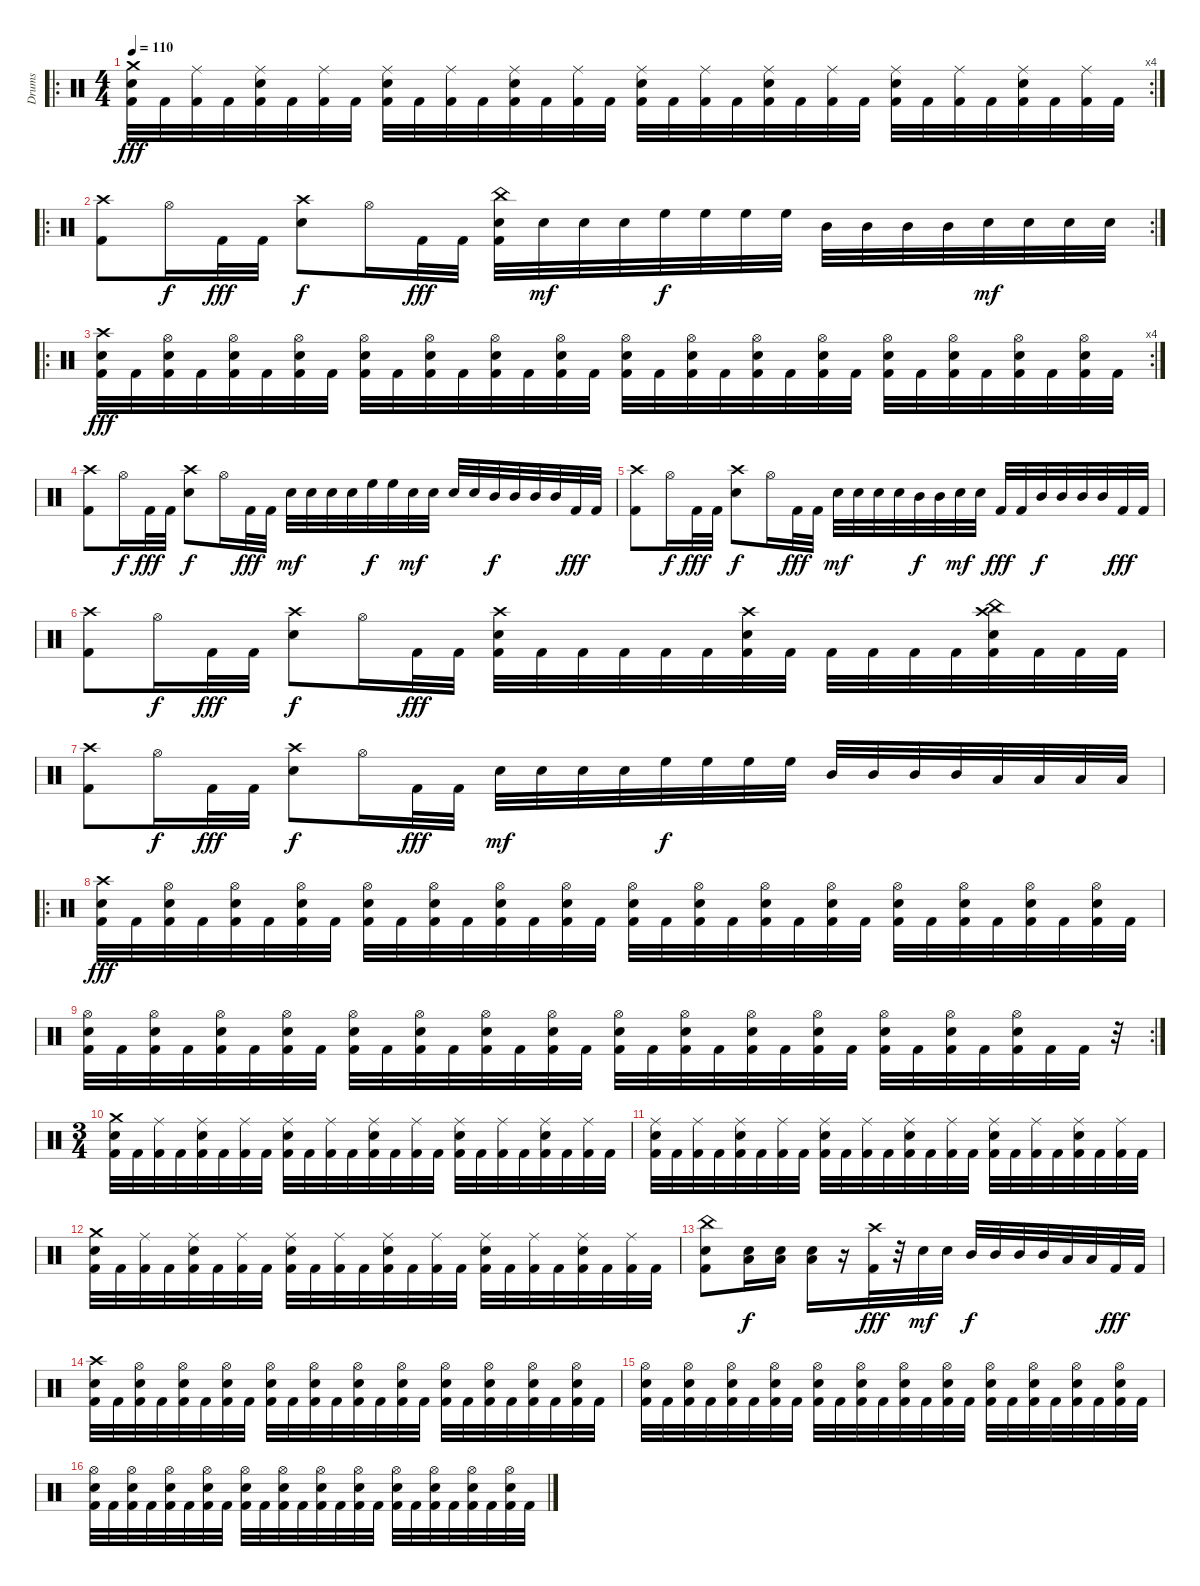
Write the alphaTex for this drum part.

\track ("Drums" "Drums") {instrument percussion}
\staff {score}
\articulation defaults
\ro
\rc 4
\ts (4 4)
\tempo 110
\clef neutral
\ks c
("Crash medium (hit)" "Electric Snare (hit)" "Kick (hit) 2").32{dy fff} "Kick (hit) 2".32 ("Ride (middle)" "Kick (hit) 2").32 "Kick (hit) 2".32 ("Ride (middle)" "Electric Snare (hit)" "Kick (hit) 2").32 "Kick (hit) 2".32 ("Ride (middle)" "Kick (hit) 2").32 "Kick (hit) 2".32 ("Ride (middle)" "Electric Snare (hit)" "Kick (hit) 2").32 "Kick (hit) 2".32 ("Ride (middle)" "Kick (hit) 2").32 "Kick (hit) 2".32 ("Ride (middle)" "Electric Snare (hit)" "Kick (hit) 2").32 "Kick (hit) 2".32 ("Ride (middle)" "Kick (hit) 2").32 "Kick (hit) 2".32 ("Ride (middle)" "Electric Snare (hit)" "Kick (hit) 2").32 "Kick (hit) 2".32 ("Ride (middle)" "Kick (hit) 2").32 "Kick (hit) 2".32 ("Ride (middle)" "Electric Snare (hit)" "Kick (hit) 2").32 "Kick (hit) 2".32 ("Ride (middle)" "Kick (hit) 2").32 "Kick (hit) 2".32 ("Ride (middle)" "Electric Snare (hit)" "Kick (hit) 2").32 "Kick (hit) 2".32 ("Ride (middle)" "Kick (hit) 2").32 "Kick (hit) 2".32 ("Ride (middle)" "Electric Snare (hit)" "Kick (hit) 2").32 "Kick (hit) 2".32 ("Ride (middle)" "Kick (hit) 2").32 "Kick (hit) 2".32 |
\ro
\rc 2
("Crash high (hit)" "Kick (hit) 2").8 "Hi-Hat (open)".16{dy f} "Kick (hit) 2".32{dy fff} "Kick (hit) 2".32 ("Crash high (hit)" "Electric Snare (hit)").8{dy f} "Hi-Hat (open)".16 "Kick (hit) 2".32{dy fff} "Kick (hit) 2".32 ("China (hit)" "Electric Snare (hit)" "Kick (hit) 2").32 "Electric Snare (hit)".32{dy mf} "Electric Snare (hit)".32 "Electric Snare (hit)".32 "High Floor Tom (hit)".32{dy f} "High Floor Tom (hit)".32 "High Floor Tom (hit)".32 "High Floor Tom (hit)".32 "Mid Tom (hit)".32 "Mid Tom (hit)".32 "Mid Tom (hit)".32 "Mid Tom (hit)".32 "Electric Snare (hit)".32{dy mf} "Electric Snare (hit)".32 "Electric Snare (hit)".32 "Electric Snare (hit)".32 |
\ro
\rc 4
("Crash high (hit)" "Electric Snare (hit)" "Kick (hit) 2").32{dy fff} "Kick (hit) 2".32 ("Hi-Hat (open)" "Electric Snare (hit)" "Kick (hit) 2").32 "Kick (hit) 2".32 ("Hi-Hat (open)" "Electric Snare (hit)" "Kick (hit) 2").32 "Kick (hit) 2".32 ("Hi-Hat (open)" "Electric Snare (hit)" "Kick (hit) 2").32 "Kick (hit) 2".32 ("Hi-Hat (open)" "Electric Snare (hit)" "Kick (hit) 2").32 "Kick (hit) 2".32 ("Hi-Hat (open)" "Electric Snare (hit)" "Kick (hit) 2").32 "Kick (hit) 2".32 ("Hi-Hat (open)" "Electric Snare (hit)" "Kick (hit) 2").32 "Kick (hit) 2".32 ("Hi-Hat (open)" "Electric Snare (hit)" "Kick (hit) 2").32 "Kick (hit) 2".32 ("Hi-Hat (open)" "Electric Snare (hit)" "Kick (hit) 2").32 "Kick (hit) 2".32 ("Hi-Hat (open)" "Electric Snare (hit)" "Kick (hit) 2").32 "Kick (hit) 2".32 ("Hi-Hat (open)" "Electric Snare (hit)" "Kick (hit) 2").32 "Kick (hit) 2".32 ("Hi-Hat (open)" "Electric Snare (hit)" "Kick (hit) 2").32 "Kick (hit) 2".32 ("Hi-Hat (open)" "Electric Snare (hit)" "Kick (hit) 2").32 "Kick (hit) 2".32 ("Hi-Hat (open)" "Electric Snare (hit)" "Kick (hit) 2").32 "Kick (hit) 2".32 ("Hi-Hat (open)" "Electric Snare (hit)" "Kick (hit) 2").32 "Kick (hit) 2".32 ("Hi-Hat (open)" "Electric Snare (hit)" "Kick (hit) 2").32 "Kick (hit) 2".32 |
("Crash high (hit)" "Kick (hit) 2").8 "Hi-Hat (open)".16{dy f} "Kick (hit) 2".32{dy fff} "Kick (hit) 2".32 ("Crash high (hit)" "Electric Snare (hit)").8{dy f} "Hi-Hat (open)".16 "Kick (hit) 2".32{dy fff} "Kick (hit) 2".32 "Electric Snare (hit)".32{dy mf} "Electric Snare (hit)".32 "Electric Snare (hit)".32 "Electric Snare (hit)".32 "High Floor Tom (hit)".32{dy f} "High Floor Tom (hit)".32 "Electric Snare (hit)".32{dy mf} "Electric Snare (hit)".32 "Electric Snare (hit)".32 "Electric Snare (hit)".32 "Mid Tom (hit)".32{dy f} "Mid Tom (hit)".32 "Mid Tom (hit)".32 "Mid Tom (hit)".32 "Kick (hit) 2".32{dy fff} "Kick (hit) 2".32 |
("Crash high (hit)" "Kick (hit) 2").8 "Hi-Hat (open)".16{dy f} "Kick (hit) 2".32{dy fff} "Kick (hit) 2".32 ("Crash high (hit)" "Electric Snare (hit)").8{dy f} "Hi-Hat (open)".16 "Kick (hit) 2".32{dy fff} "Kick (hit) 2".32 "Electric Snare (hit)".32{dy mf} "Electric Snare (hit)".32 "Electric Snare (hit)".32 "Electric Snare (hit)".32 "Mid Tom (hit)".32{dy f} "Mid Tom (hit)".32 "Electric Snare (hit)".32{dy mf} "Electric Snare (hit)".32 "Kick (hit) 2".32{dy fff} "Kick (hit) 2".32 "Mid Tom (hit)".32{dy f} "Mid Tom (hit)".32 "Mid Tom (hit)".32 "Mid Tom (hit)".32 "Kick (hit) 2".32{dy fff} "Kick (hit) 2".32 |
("Crash high (hit)" "Kick (hit) 2").8 "Hi-Hat (open)".16{dy f} "Kick (hit) 2".32{dy fff} "Kick (hit) 2".32 ("Crash high (hit)" "Electric Snare (hit)").8{dy f} "Hi-Hat (open)".16 "Kick (hit) 2".32{dy fff} "Kick (hit) 2".32 ("Crash high (hit)" "Electric Snare (hit)" "Kick (hit) 2").32 "Kick (hit) 2".32 "Kick (hit) 2".32 "Kick (hit) 2".32 "Kick (hit) 2".32 "Kick (hit) 2".32 ("Crash high (hit)" "Electric Snare (hit)" "Kick (hit) 2").32 "Kick (hit) 2".32 "Kick (hit) 2".32 "Kick (hit) 2".32 "Kick (hit) 2".32 "Kick (hit) 2".32 ("Crash high (hit)" "China (hit)" "Electric Snare (hit)" "Kick (hit) 2").32 "Kick (hit) 2".32 "Kick (hit) 2".32 "Kick (hit) 2".32 |
("Crash high (hit)" "Kick (hit) 2").8 "Hi-Hat (open)".16{dy f} "Kick (hit) 2".32{dy fff} "Kick (hit) 2".32 ("Crash high (hit)" "Electric Snare (hit)").8{dy f} "Hi-Hat (open)".16 "Kick (hit) 2".32{dy fff} "Kick (hit) 2".32 "Electric Snare (hit)".32{dy mf} "Electric Snare (hit)".32 "Electric Snare (hit)".32 "Electric Snare (hit)".32 "High Floor Tom (hit)".32{dy f} "High Floor Tom (hit)".32 "High Floor Tom (hit)".32 "High Floor Tom (hit)".32 "Mid Tom (hit)".32 "Mid Tom (hit)".32 "Mid Tom (hit)".32 "Mid Tom (hit)".32 "Low Tom (hit)".32 "Low Tom (hit)".32 "Low Tom (hit)".32 "Low Tom (hit)".32 |
\ro
("Crash high (hit)" "Electric Snare (hit)" "Kick (hit) 2").32{dy fff} "Kick (hit) 2".32 ("Hi-Hat (open)" "Electric Snare (hit)" "Kick (hit) 2").32 "Kick (hit) 2".32 ("Hi-Hat (open)" "Electric Snare (hit)" "Kick (hit) 2").32 "Kick (hit) 2".32 ("Hi-Hat (open)" "Electric Snare (hit)" "Kick (hit) 2").32 "Kick (hit) 2".32 ("Hi-Hat (open)" "Electric Snare (hit)" "Kick (hit) 2").32 "Kick (hit) 2".32 ("Hi-Hat (open)" "Electric Snare (hit)" "Kick (hit) 2").32 "Kick (hit) 2".32 ("Hi-Hat (open)" "Electric Snare (hit)" "Kick (hit) 2").32 "Kick (hit) 2".32 ("Hi-Hat (open)" "Electric Snare (hit)" "Kick (hit) 2").32 "Kick (hit) 2".32 ("Hi-Hat (open)" "Electric Snare (hit)" "Kick (hit) 2").32 "Kick (hit) 2".32 ("Hi-Hat (open)" "Electric Snare (hit)" "Kick (hit) 2").32 "Kick (hit) 2".32 ("Hi-Hat (open)" "Electric Snare (hit)" "Kick (hit) 2").32 "Kick (hit) 2".32 ("Hi-Hat (open)" "Electric Snare (hit)" "Kick (hit) 2").32 "Kick (hit) 2".32 ("Hi-Hat (open)" "Electric Snare (hit)" "Kick (hit) 2").32 "Kick (hit) 2".32 ("Hi-Hat (open)" "Electric Snare (hit)" "Kick (hit) 2").32 "Kick (hit) 2".32 ("Hi-Hat (open)" "Electric Snare (hit)" "Kick (hit) 2").32 "Kick (hit) 2".32 ("Hi-Hat (open)" "Electric Snare (hit)" "Kick (hit) 2").32 "Kick (hit) 2".32 |
\rc 2
("Hi-Hat (open)" "Electric Snare (hit)" "Kick (hit) 2").32 "Kick (hit) 2".32 ("Hi-Hat (open)" "Electric Snare (hit)" "Kick (hit) 2").32 "Kick (hit) 2".32 ("Hi-Hat (open)" "Electric Snare (hit)" "Kick (hit) 2").32 "Kick (hit) 2".32 ("Hi-Hat (open)" "Electric Snare (hit)" "Kick (hit) 2").32 "Kick (hit) 2".32 ("Hi-Hat (open)" "Electric Snare (hit)" "Kick (hit) 2").32 "Kick (hit) 2".32 ("Hi-Hat (open)" "Electric Snare (hit)" "Kick (hit) 2").32 "Kick (hit) 2".32 ("Hi-Hat (open)" "Electric Snare (hit)" "Kick (hit) 2").32 "Kick (hit) 2".32 ("Hi-Hat (open)" "Electric Snare (hit)" "Kick (hit) 2").32 "Kick (hit) 2".32 ("Hi-Hat (open)" "Electric Snare (hit)" "Kick (hit) 2").32 "Kick (hit) 2".32 ("Hi-Hat (open)" "Electric Snare (hit)" "Kick (hit) 2").32 "Kick (hit) 2".32 ("Hi-Hat (open)" "Electric Snare (hit)" "Kick (hit) 2").32 "Kick (hit) 2".32 ("Hi-Hat (open)" "Electric Snare (hit)" "Kick (hit) 2").32 "Kick (hit) 2".32 ("Hi-Hat (open)" "Electric Snare (hit)" "Kick (hit) 2").32 "Kick (hit) 2".32 ("Hi-Hat (open)" "Electric Snare (hit)" "Kick (hit) 2").32 "Kick (hit) 2".32 ("Hi-Hat (open)" "Electric Snare (hit)" "Kick (hit) 2").32 "Kick (hit) 2".32 "Kick (hit) 2".32 r.32 |
\ts (3 4)
("Crash medium (hit)" "Electric Snare (hit)" "Kick (hit) 2").32 "Kick (hit) 2".32 ("Ride (middle)" "Kick (hit) 2").32 "Kick (hit) 2".32 ("Ride (middle)" "Electric Snare (hit)" "Kick (hit) 2").32 "Kick (hit) 2".32 ("Ride (middle)" "Kick (hit) 2").32 "Kick (hit) 2".32 ("Ride (middle)" "Electric Snare (hit)" "Kick (hit) 2").32 "Kick (hit) 2".32 ("Ride (middle)" "Kick (hit) 2").32 "Kick (hit) 2".32 ("Ride (middle)" "Electric Snare (hit)" "Kick (hit) 2").32 "Kick (hit) 2".32 ("Ride (middle)" "Kick (hit) 2").32 "Kick (hit) 2".32 ("Ride (middle)" "Electric Snare (hit)" "Kick (hit) 2").32 "Kick (hit) 2".32 ("Ride (middle)" "Kick (hit) 2").32 "Kick (hit) 2".32 ("Ride (middle)" "Electric Snare (hit)" "Kick (hit) 2").32 "Kick (hit) 2".32 ("Ride (middle)" "Kick (hit) 2").32 "Kick (hit) 2".32 |
("Ride (middle)" "Electric Snare (hit)" "Kick (hit) 2").32 "Kick (hit) 2".32 ("Ride (middle)" "Kick (hit) 2").32 "Kick (hit) 2".32 ("Ride (middle)" "Electric Snare (hit)" "Kick (hit) 2").32 "Kick (hit) 2".32 ("Ride (middle)" "Kick (hit) 2").32 "Kick (hit) 2".32 ("Ride (middle)" "Electric Snare (hit)" "Kick (hit) 2").32 "Kick (hit) 2".32 ("Ride (middle)" "Kick (hit) 2").32 "Kick (hit) 2".32 ("Ride (middle)" "Electric Snare (hit)" "Kick (hit) 2").32 "Kick (hit) 2".32 ("Ride (middle)" "Kick (hit) 2").32 "Kick (hit) 2".32 ("Ride (middle)" "Electric Snare (hit)" "Kick (hit) 2").32 "Kick (hit) 2".32 ("Ride (middle)" "Kick (hit) 2").32 "Kick (hit) 2".32 ("Ride (middle)" "Electric Snare (hit)" "Kick (hit) 2").32 "Kick (hit) 2".32 ("Ride (middle)" "Kick (hit) 2").32 "Kick (hit) 2".32 |
("Crash medium (hit)" "Electric Snare (hit)" "Kick (hit) 2").32 "Kick (hit) 2".32 ("Ride (middle)" "Kick (hit) 2").32 "Kick (hit) 2".32 ("Ride (middle)" "Electric Snare (hit)" "Kick (hit) 2").32 "Kick (hit) 2".32 ("Ride (middle)" "Kick (hit) 2").32 "Kick (hit) 2".32 ("Ride (middle)" "Electric Snare (hit)" "Kick (hit) 2").32 "Kick (hit) 2".32 ("Ride (middle)" "Kick (hit) 2").32 "Kick (hit) 2".32 ("Ride (middle)" "Electric Snare (hit)" "Kick (hit) 2").32 "Kick (hit) 2".32 ("Ride (middle)" "Kick (hit) 2").32 "Kick (hit) 2".32 ("Ride (middle)" "Electric Snare (hit)" "Kick (hit) 2").32 "Kick (hit) 2".32 ("Ride (middle)" "Kick (hit) 2").32 "Kick (hit) 2".32 ("Ride (middle)" "Electric Snare (hit)" "Kick (hit) 2").32 "Kick (hit) 2".32 ("Ride (middle)" "Kick (hit) 2").32 "Kick (hit) 2".32 |
("China (hit)" "Electric Snare (hit)" "Kick (hit) 2").8 ("Electric Snare (hit)" "Low Tom (hit)").16{dy f} ("Electric Snare (hit)" "Low Tom (hit)").16 ("Electric Snare (hit)" "Low Tom (hit)").16 r.16 ("Crash high (hit)" "Kick (hit) 2").32{dy fff} r.32 "Electric Snare (hit)".32{dy mf} "Electric Snare (hit)".32 "Mid Tom (hit)".32{dy f} "Mid Tom (hit)".32 "Mid Tom (hit)".32 "Mid Tom (hit)".32 "Low Tom (hit)".32 "Low Tom (hit)".32 "Kick (hit) 2".32{dy fff} "Kick (hit) 2".32 |
("Crash high (hit)" "Electric Snare (hit)" "Kick (hit) 2").32 "Kick (hit) 2".32 ("Hi-Hat (open)" "Electric Snare (hit)" "Kick (hit) 2").32 "Kick (hit) 2".32 ("Hi-Hat (open)" "Electric Snare (hit)" "Kick (hit) 2").32 "Kick (hit) 2".32 ("Hi-Hat (open)" "Electric Snare (hit)" "Kick (hit) 2").32 "Kick (hit) 2".32 ("Hi-Hat (open)" "Electric Snare (hit)" "Kick (hit) 2").32 "Kick (hit) 2".32 ("Hi-Hat (open)" "Electric Snare (hit)" "Kick (hit) 2").32 "Kick (hit) 2".32 ("Hi-Hat (open)" "Electric Snare (hit)" "Kick (hit) 2").32 "Kick (hit) 2".32 ("Hi-Hat (open)" "Electric Snare (hit)" "Kick (hit) 2").32 "Kick (hit) 2".32 ("Hi-Hat (open)" "Electric Snare (hit)" "Kick (hit) 2").32 "Kick (hit) 2".32 ("Hi-Hat (open)" "Electric Snare (hit)" "Kick (hit) 2").32 "Kick (hit) 2".32 ("Hi-Hat (open)" "Electric Snare (hit)" "Kick (hit) 2").32 "Kick (hit) 2".32 ("Hi-Hat (open)" "Electric Snare (hit)" "Kick (hit) 2").32 "Kick (hit) 2".32 |
("Hi-Hat (open)" "Electric Snare (hit)" "Kick (hit) 2").32 "Kick (hit) 2".32 ("Hi-Hat (open)" "Electric Snare (hit)" "Kick (hit) 2").32 "Kick (hit) 2".32 ("Hi-Hat (open)" "Electric Snare (hit)" "Kick (hit) 2").32 "Kick (hit) 2".32 ("Hi-Hat (open)" "Electric Snare (hit)" "Kick (hit) 2").32 "Kick (hit) 2".32 ("Hi-Hat (open)" "Electric Snare (hit)" "Kick (hit) 2").32 "Kick (hit) 2".32 ("Hi-Hat (open)" "Electric Snare (hit)" "Kick (hit) 2").32 "Kick (hit) 2".32 ("Hi-Hat (open)" "Electric Snare (hit)" "Kick (hit) 2").32 "Kick (hit) 2".32 ("Hi-Hat (open)" "Electric Snare (hit)" "Kick (hit) 2").32 "Kick (hit) 2".32 ("Hi-Hat (open)" "Electric Snare (hit)" "Kick (hit) 2").32 "Kick (hit) 2".32 ("Hi-Hat (open)" "Electric Snare (hit)" "Kick (hit) 2").32 "Kick (hit) 2".32 ("Hi-Hat (open)" "Electric Snare (hit)" "Kick (hit) 2").32 "Kick (hit) 2".32 ("Hi-Hat (open)" "Electric Snare (hit)" "Kick (hit) 2").32 "Kick (hit) 2".32 |
("Hi-Hat (open)" "Electric Snare (hit)" "Kick (hit) 2").32 "Kick (hit) 2".32 ("Hi-Hat (open)" "Electric Snare (hit)" "Kick (hit) 2").32 "Kick (hit) 2".32 ("Hi-Hat (open)" "Electric Snare (hit)" "Kick (hit) 2").32 "Kick (hit) 2".32 ("Hi-Hat (open)" "Electric Snare (hit)" "Kick (hit) 2").32 "Kick (hit) 2".32 ("Hi-Hat (open)" "Electric Snare (hit)" "Kick (hit) 2").32 "Kick (hit) 2".32 ("Hi-Hat (open)" "Electric Snare (hit)" "Kick (hit) 2").32 "Kick (hit) 2".32 ("Hi-Hat (open)" "Electric Snare (hit)" "Kick (hit) 2").32 "Kick (hit) 2".32 ("Hi-Hat (open)" "Electric Snare (hit)" "Kick (hit) 2").32 "Kick (hit) 2".32 ("Hi-Hat (open)" "Electric Snare (hit)" "Kick (hit) 2").32 "Kick (hit) 2".32 ("Hi-Hat (open)" "Electric Snare (hit)" "Kick (hit) 2").32 "Kick (hit) 2".32 ("Hi-Hat (open)" "Electric Snare (hit)" "Kick (hit) 2").32 "Kick (hit) 2".32 ("Hi-Hat (open)" "Electric Snare (hit)" "Kick (hit) 2").32 "Kick (hit) 2".32
